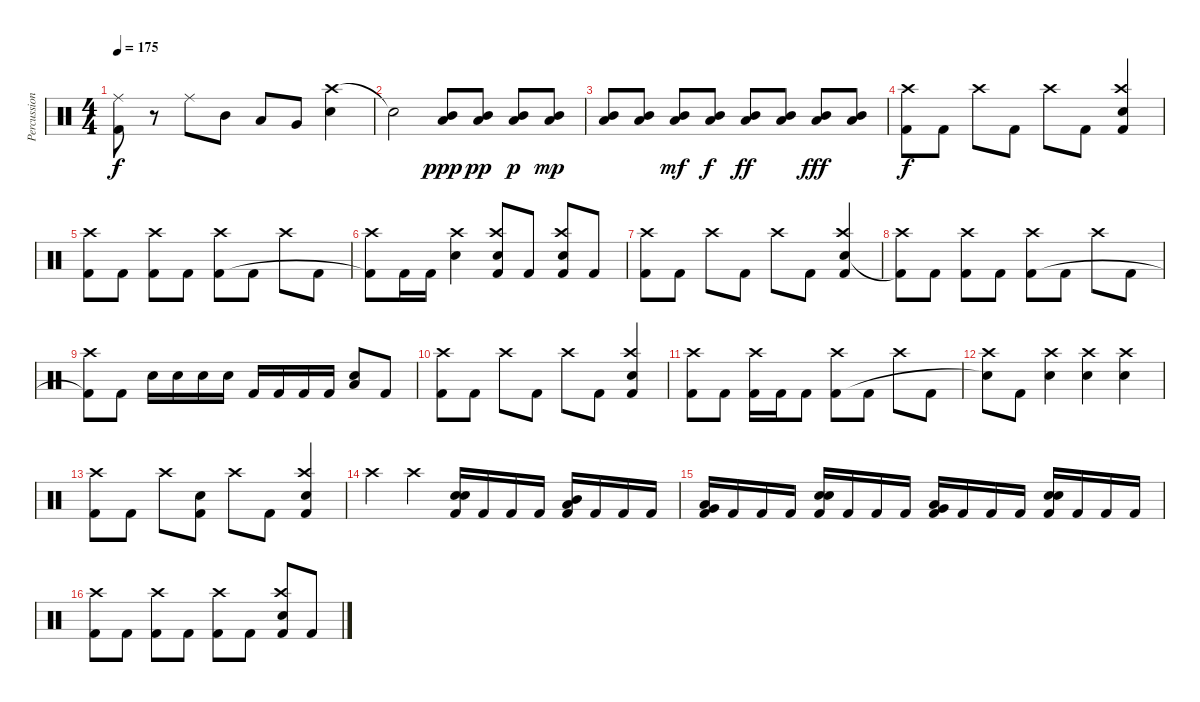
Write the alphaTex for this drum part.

\track ("Percussion" "Percussion") {instrument percussion}
\staff {score}
\articulation defaults
\ts (4 4)
\tempo 175
\clef neutral
\ks c
("Ride (middle)" "Kick (hit) 2").8{dy f} r.8 "Ride (middle)".8 "Mid Tom (hit)".8 "Low Tom (hit)".8 "Very Low Tom (hit)".8 ("Crash high (hit)" "Electric Snare (hit)").4 |
"Snare (hit)"{t}.2 ("Mid Tom (hit)" "Low Floor Tom (hit)").8{dy ppp} ("Mid Tom (hit)" "Low Floor Tom (hit)").8{dy pp} ("Mid Tom (hit)" "Low Floor Tom (hit)").8{dy p} ("Mid Tom (hit)" "Low Floor Tom (hit)").8{dy mp} |
("Mid Tom (hit)" "Low Floor Tom (hit)").8 ("Mid Tom (hit)" "Low Floor Tom (hit)").8 ("Mid Tom (hit)" "Low Floor Tom (hit)").8{dy mf} ("Mid Tom (hit)" "Low Floor Tom (hit)").8{dy f} ("Mid Tom (hit)" "Low Floor Tom (hit)").8{dy ff} ("Mid Tom (hit)" "Low Floor Tom (hit)").8 ("Mid Tom (hit)" "Low Floor Tom (hit)").8{dy fff} ("Mid Tom (hit)" "Low Floor Tom (hit)").8 |
("Crash high (hit)" "Kick (hit) 2").8{dy f} "Kick (hit) 2".8 "Crash high (hit)".8 "Kick (hit) 2".8 "Crash high (hit)".8 "Kick (hit) 2".8 ("Crash high (hit)" "Electric Snare (hit)" "Kick (hit) 2").4 |
("Crash high (hit)" "Kick (hit) 2").8 "Kick (hit) 2".8 ("Crash high (hit)" "Kick (hit) 2").8 "Kick (hit) 2".8 ("Crash high (hit)" "Kick (hit) 2").8 "Kick (hit) 2".8 "Crash high (hit)".8 "Kick (hit) 2".8 |
("Crash high (hit)" "Kick (hit) 2"{t}).8 "Kick (hit) 2".16 "Kick (hit) 2".16 ("Crash high (hit)" "Electric Snare (hit)").4 ("Crash high (hit)" "Electric Snare (hit)" "Kick (hit) 2").8 "Kick (hit) 2".8 ("Crash high (hit)" "Electric Snare (hit)" "Kick (hit) 2").8 "Kick (hit) 2".8 |
("Crash high (hit)" "Kick (hit) 2").8 "Kick (hit) 2".8 "Crash high (hit)".8 "Kick (hit) 2".8 "Crash high (hit)".8 "Kick (hit) 2".8 ("Crash high (hit)" "Electric Snare (hit)" "Kick (hit) 2").4 |
("Crash high (hit)" "Kick (hit) 2"{t}).8 "Kick (hit) 2".8 ("Crash high (hit)" "Kick (hit) 2").8 "Kick (hit) 2".8 ("Crash high (hit)" "Kick (hit) 2").8 "Kick (hit) 2".8 "Crash high (hit)".8 "Kick (hit) 2".8 |
("Crash high (hit)" "Kick (hit) 2"{t}).8 "Kick (hit) 2".8 "Electric Snare (hit)".16 "Electric Snare (hit)".16 "Electric Snare (hit)".16 "Electric Snare (hit)".16 "Kick (hit) 2".16 "Kick (hit) 2".16 "Kick (hit) 2".16 "Kick (hit) 2".16 ("Low Floor Tom (hit)" "Electric Snare (hit)").8 "Kick (hit) 2".8 |
("Crash high (hit)" "Kick (hit) 2").8 "Kick (hit) 2".8 "Crash high (hit)".8 "Kick (hit) 2".8 "Crash high (hit)".8 "Kick (hit) 2".8 ("Crash high (hit)" "Electric Snare (hit)" "Kick (hit) 2").4 |
("Crash high (hit)" "Kick (hit) 2").8 "Kick (hit) 2".8 ("Crash high (hit)" "Kick (hit) 2").16 "Kick (hit) 2".16 "Kick (hit) 2".8 ("Crash high (hit)" "Kick (hit) 2").8 "Kick (hit) 2".8 "Crash high (hit)".8 "Kick (hit) 2".8 |
("Crash high (hit)" "Snare (hit)"{t}).8 "Kick (hit) 2".8 ("Crash high (hit)" "Electric Snare (hit)").4 ("Crash high (hit)" "Electric Snare (hit)").4 ("Crash high (hit)" "Electric Snare (hit)").4 |
("Crash high (hit)" "Kick (hit) 2").8 "Kick (hit) 2".8 "Crash high (hit)".8 ("Electric Snare (hit)" "Kick (hit) 2").8 "Crash high (hit)".8 "Kick (hit) 2".8 ("Crash high (hit)" "Electric Snare (hit)" "Kick (hit) 2").4 |
"Crash high (hit)".4 "Crash high (hit)".4 ("Electric Snare (hit)" "Electric Snare (hit)" "Kick (hit) 2").16 "Kick (hit) 2".16 "Kick (hit) 2".16 "Kick (hit) 2".16 ("Mid Tom (hit)" "Low Tom (hit)" "Kick (hit) 2").16 "Kick (hit) 2".16 "Kick (hit) 2".16 "Kick (hit) 2".16 |
("Low Tom (hit)" "Very Low Tom (hit)" "Kick (hit) 2").16 "Kick (hit) 2".16 "Kick (hit) 2".16 "Kick (hit) 2".16 ("Electric Snare (hit)" "Electric Snare (hit)" "Kick (hit) 2").16 "Kick (hit) 2".16 "Kick (hit) 2".16 "Kick (hit) 2".16 ("Very Low Tom (hit)" "Low Floor Tom (hit)" "Kick (hit) 2").16 "Kick (hit) 2".16 "Kick (hit) 2".16 "Kick (hit) 2".16 ("Electric Snare (hit)" "Electric Snare (hit)" "Kick (hit) 2").16 "Kick (hit) 2".16 "Kick (hit) 2".16 "Kick (hit) 2".16 |
("Crash high (hit)" "Kick (hit) 2").8 "Kick (hit) 2".8 ("Crash high (hit)" "Kick (hit) 2").8 "Kick (hit) 2".8 ("Crash high (hit)" "Kick (hit) 2").8 "Kick (hit) 2".8 ("Crash high (hit)" "Electric Snare (hit)" "Kick (hit) 2").8 "Kick (hit) 2".8
